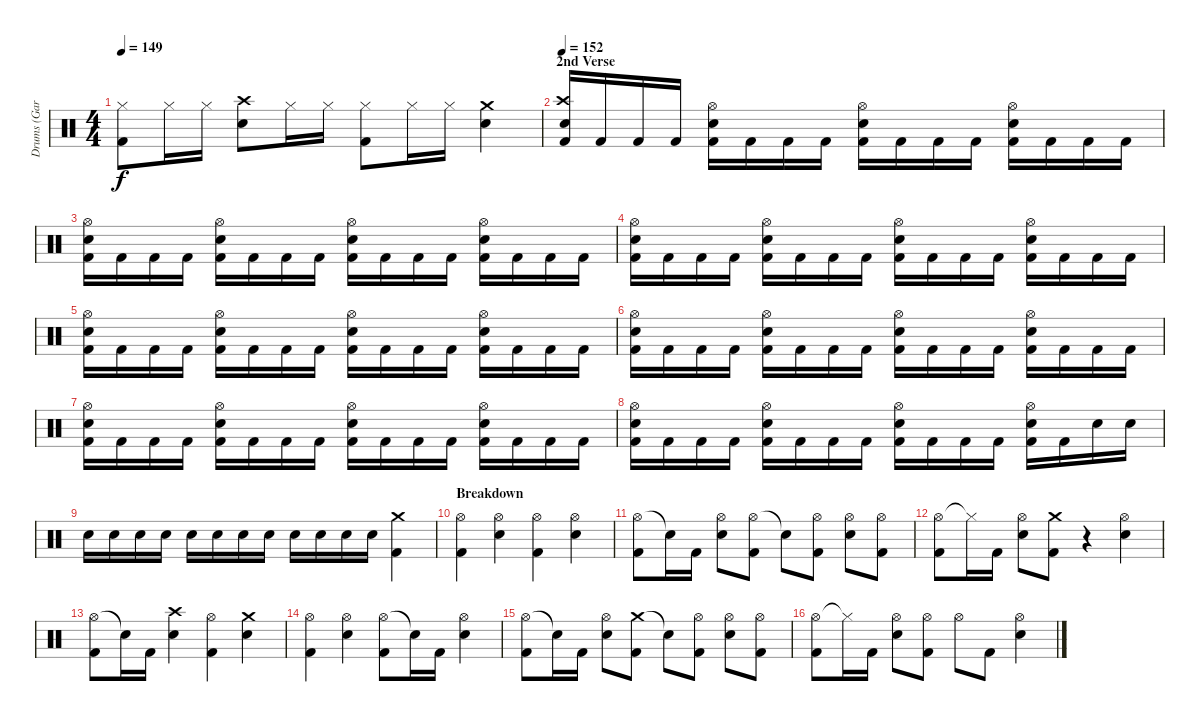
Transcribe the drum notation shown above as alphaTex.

\track ("Drums (Gar Samuelson)" "Drums (Gar") {instrument percussion}
\staff {score}
\articulation defaults
\ts (4 4)
\tempo 149
\clef neutral
\ks c
("Hi-Hat (closed)" "Kick (hit) 2").8{dy f} "Hi-Hat (closed)".16 "Hi-Hat (closed)".16 ("Crash high (hit)" "Snare (hit) 2").8 "Hi-Hat (closed)".16 "Hi-Hat (closed)".16 ("Hi-Hat (closed)" "Kick (hit) 2").8 "Hi-Hat (closed)".16 "Hi-Hat (closed)".16 ("Crash medium (hit)" "Snare (hit) 2").4 |
\section ("" "2nd Verse")
\tempo 152
("Crash high (hit)" "Snare (hit) 2" "Kick (hit) 2").16 "Kick (hit) 2".16 "Kick (hit) 2".16 "Kick (hit) 2".16 ("Hi-Hat (open)" "Snare (hit) 2" "Kick (hit) 2").16 "Kick (hit) 2".16 "Kick (hit) 2".16 "Kick (hit) 2".16 ("Hi-Hat (open)" "Snare (hit) 2" "Kick (hit) 2").16 "Kick (hit) 2".16 "Kick (hit) 2".16 "Kick (hit) 2".16 ("Hi-Hat (open)" "Snare (hit) 2" "Kick (hit) 2").16 "Kick (hit) 2".16 "Kick (hit) 2".16 "Kick (hit) 2".16 |
("Hi-Hat (open)" "Snare (hit) 2" "Kick (hit) 2").16 "Kick (hit) 2".16 "Kick (hit) 2".16 "Kick (hit) 2".16 ("Hi-Hat (open)" "Snare (hit) 2" "Kick (hit) 2").16 "Kick (hit) 2".16 "Kick (hit) 2".16 "Kick (hit) 2".16 ("Hi-Hat (open)" "Snare (hit) 2" "Kick (hit) 2").16 "Kick (hit) 2".16 "Kick (hit) 2".16 "Kick (hit) 2".16 ("Hi-Hat (open)" "Snare (hit) 2" "Kick (hit) 2").16 "Kick (hit) 2".16 "Kick (hit) 2".16 "Kick (hit) 2".16 |
("Hi-Hat (open)" "Snare (hit) 2" "Kick (hit) 2").16 "Kick (hit) 2".16 "Kick (hit) 2".16 "Kick (hit) 2".16 ("Hi-Hat (open)" "Snare (hit) 2" "Kick (hit) 2").16 "Kick (hit) 2".16 "Kick (hit) 2".16 "Kick (hit) 2".16 ("Hi-Hat (open)" "Snare (hit) 2" "Kick (hit) 2").16 "Kick (hit) 2".16 "Kick (hit) 2".16 "Kick (hit) 2".16 ("Hi-Hat (open)" "Snare (hit) 2" "Kick (hit) 2").16 "Kick (hit) 2".16 "Kick (hit) 2".16 "Kick (hit) 2".16 |
("Hi-Hat (open)" "Snare (hit) 2" "Kick (hit) 2").16 "Kick (hit) 2".16 "Kick (hit) 2".16 "Kick (hit) 2".16 ("Hi-Hat (open)" "Snare (hit) 2" "Kick (hit) 2").16 "Kick (hit) 2".16 "Kick (hit) 2".16 "Kick (hit) 2".16 ("Hi-Hat (open)" "Snare (hit) 2" "Kick (hit) 2").16 "Kick (hit) 2".16 "Kick (hit) 2".16 "Kick (hit) 2".16 ("Hi-Hat (open)" "Snare (hit) 2" "Kick (hit) 2").16 "Kick (hit) 2".16 "Kick (hit) 2".16 "Kick (hit) 2".16 |
("Hi-Hat (open)" "Snare (hit) 2" "Kick (hit) 2").16 "Kick (hit) 2".16 "Kick (hit) 2".16 "Kick (hit) 2".16 ("Hi-Hat (open)" "Snare (hit) 2" "Kick (hit) 2").16 "Kick (hit) 2".16 "Kick (hit) 2".16 "Kick (hit) 2".16 ("Hi-Hat (open)" "Snare (hit) 2" "Kick (hit) 2").16 "Kick (hit) 2".16 "Kick (hit) 2".16 "Kick (hit) 2".16 ("Hi-Hat (open)" "Snare (hit) 2" "Kick (hit) 2").16 "Kick (hit) 2".16 "Kick (hit) 2".16 "Kick (hit) 2".16 |
("Hi-Hat (open)" "Snare (hit) 2" "Kick (hit) 2").16 "Kick (hit) 2".16 "Kick (hit) 2".16 "Kick (hit) 2".16 ("Hi-Hat (open)" "Snare (hit) 2" "Kick (hit) 2").16 "Kick (hit) 2".16 "Kick (hit) 2".16 "Kick (hit) 2".16 ("Hi-Hat (open)" "Snare (hit) 2" "Kick (hit) 2").16 "Kick (hit) 2".16 "Kick (hit) 2".16 "Kick (hit) 2".16 ("Hi-Hat (open)" "Snare (hit) 2" "Kick (hit) 2").16 "Kick (hit) 2".16 "Kick (hit) 2".16 "Kick (hit) 2".16 |
("Hi-Hat (open)" "Snare (hit) 2" "Kick (hit) 2").16 "Kick (hit) 2".16 "Kick (hit) 2".16 "Kick (hit) 2".16 ("Hi-Hat (open)" "Snare (hit) 2" "Kick (hit) 2").16 "Kick (hit) 2".16 "Kick (hit) 2".16 "Kick (hit) 2".16 ("Hi-Hat (open)" "Snare (hit) 2" "Kick (hit) 2").16 "Kick (hit) 2".16 "Kick (hit) 2".16 "Kick (hit) 2".16 ("Hi-Hat (open)" "Snare (hit) 2" "Kick (hit) 2").16 "Kick (hit) 2".16 "Snare (hit) 2".16 "Snare (hit) 2".16 |
"Snare (hit) 2".16 "Snare (hit) 2".16 "Snare (hit) 2".16 "Snare (hit) 2".16 "Snare (hit) 2".16 "Snare (hit) 2".16 "Snare (hit) 2".16 "Snare (hit) 2".16 "Snare (hit) 2".16 "Snare (hit) 2".16 "Snare (hit) 2".16 "Snare (hit) 2".16 ("Crash medium (hit)" "Kick (hit) 2").4 |
\section ("" "Breakdown")
("Hi-Hat (open)" "Kick (hit) 2").4 ("Hi-Hat (open)" "Snare (hit) 2").4 ("Hi-Hat (open)" "Kick (hit) 2").4 ("Hi-Hat (open)" "Snare (hit) 2").4 |
("Hi-Hat (open)" "Kick (hit) 2").8 "Snare (hit)"{t}.16 "Kick (hit) 2".16 ("Hi-Hat (open)" "Snare (hit) 2").8 ("Hi-Hat (open)" "Kick (hit) 2").8 "Snare (hit)"{t}.8 ("Hi-Hat (open)" "Kick (hit) 2").8 ("Hi-Hat (open)" "Snare (hit) 2").8 ("Hi-Hat (open)" "Kick (hit) 2").8 |
("Hi-Hat (open)" "Kick (hit) 2").8 "Hi-Hat (closed)"{t}.16 "Kick (hit) 2".16 ("Hi-Hat (open)" "Snare (hit) 2").8 ("Crash medium (hit)" "Kick (hit) 2").8 r.4 ("Hi-Hat (open)" "Snare (hit) 2").4 |
("Hi-Hat (open)" "Kick (hit) 2").8 "Snare (hit)"{t}.16 "Kick (hit) 2".16 ("Crash high (hit)" "Snare (hit) 2").4 ("Hi-Hat (open)" "Kick (hit) 2").4 ("Crash medium (hit)" "Snare (hit) 2").4 |
("Hi-Hat (open)" "Kick (hit) 2").4 ("Hi-Hat (open)" "Snare (hit) 2").4 ("Hi-Hat (open)" "Kick (hit) 2").8 "Snare (hit)"{t}.16 "Kick (hit) 2".16 ("Hi-Hat (open)" "Snare (hit) 2").4 |
("Hi-Hat (open)" "Kick (hit) 2").8 "Snare (hit)"{t}.16 "Kick (hit) 2".16 ("Hi-Hat (open)" "Snare (hit) 2").8 ("Crash medium (hit)" "Kick (hit) 2").8 "Snare (hit)"{t}.8 ("Hi-Hat (open)" "Kick (hit) 2").8 ("Hi-Hat (open)" "Snare (hit) 2").8 ("Hi-Hat (open)" "Kick (hit) 2").8 |
("Hi-Hat (open)" "Kick (hit) 2").8 "Hi-Hat (closed)"{t}.16 "Kick (hit) 2".16 ("Hi-Hat (open)" "Snare (hit) 2").8 ("Hi-Hat (open)" "Kick (hit) 2").8 "Hi-Hat (open)".8 "Kick (hit) 2".8 ("Hi-Hat (open)" "Snare (hit) 2").4
